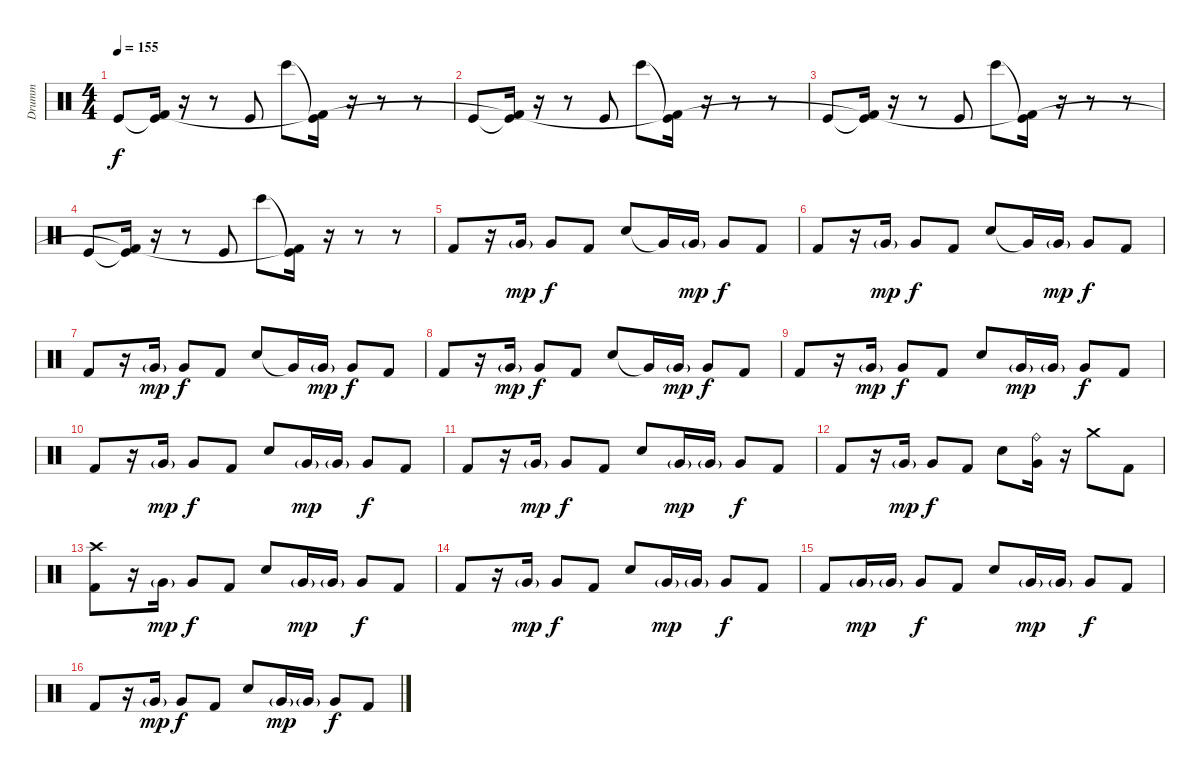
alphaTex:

\track ("Drumm" "Drumm") {instrument percussion}
\staff {score}
\articulation defaults
\ts (4 4)
\tempo 155
\clef neutral
\ks c "Kick (hit)".8{dy f}
("Kick (hit)"{t} "Kick (hit) 2"{t}).16 r.16 r.8 "Kick (hit)".8 "Bongo High (hit)".8 ("Kick (hit)"{t} "Kick (hit) 2"{t}).16 r.16 r.8 r.8 |
"Kick (hit)".8 ("Kick (hit)"{t} "Kick (hit) 2"{t}).16 r.16 r.8 "Kick (hit)".8 "Bongo High (hit)".8 ("Kick (hit)"{t} "Kick (hit) 2"{t}).16 r.16 r.8 r.8 |
"Kick (hit)".8 ("Kick (hit)"{t} "Kick (hit) 2"{t}).16 r.16 r.8 "Kick (hit)".8 "Bongo High (hit)".8 ("Kick (hit)"{t} "Kick (hit) 2"{t}).16 r.16 r.8 r.8 |
"Kick (hit)".8 ("Kick (hit)"{t} "Kick (hit) 2"{t}).16 r.16 r.8 "Kick (hit)".8 "Bongo High (hit)".8 ("Kick (hit)"{t} "Kick (hit) 2"{t}).16 r.16 r.8 r.8 |
"Kick (hit) 2".8 r.16 "Very Low Tom (hit)"{g}.16{dy mp} "Very Low Tom (hit)".8{dy f} "Kick (hit) 2".8 "Snare (hit) 2".8 "Very Low Tom (hit)"{t}.16 "Very Low Tom (hit)"{g}.16{dy mp} "Very Low Tom (hit)".8{dy f} "Kick (hit) 2".8 |
"Kick (hit) 2".8 r.16 "Very Low Tom (hit)"{g}.16{dy mp} "Very Low Tom (hit)".8{dy f} "Kick (hit) 2".8 "Snare (hit) 2".8 "Very Low Tom (hit)"{t}.16 "Very Low Tom (hit)"{g}.16{dy mp} "Very Low Tom (hit)".8{dy f} "Kick (hit) 2".8 |
"Kick (hit) 2".8 r.16 "Very Low Tom (hit)"{g}.16{dy mp} "Very Low Tom (hit)".8{dy f} "Kick (hit) 2".8 "Snare (hit) 2".8 "Very Low Tom (hit)"{t}.16 "Very Low Tom (hit)"{g}.16{dy mp} "Very Low Tom (hit)".8{dy f} "Kick (hit) 2".8 |
"Kick (hit) 2".8 r.16 "Very Low Tom (hit)"{g}.16{dy mp} "Very Low Tom (hit)".8{dy f} "Kick (hit) 2".8 "Snare (hit) 2".8 "Very Low Tom (hit)"{t}.16 "Very Low Tom (hit)"{g}.16{dy mp} "Very Low Tom (hit)".8{dy f} "Kick (hit) 2".8 |
"Kick (hit) 2".8 r.16 "Very Low Tom (hit)"{g}.16{dy mp} "Very Low Tom (hit)".8{dy f} "Kick (hit) 2".8 "Snare (hit) 2".8 "Very Low Tom (hit)"{g}.16{dy mp} "Very Low Tom (hit)"{g}.16 "Very Low Tom (hit)".8{dy f} "Kick (hit) 2".8 |
"Kick (hit) 2".8 r.16 "Very Low Tom (hit)"{g}.16{dy mp} "Very Low Tom (hit)".8{dy f} "Kick (hit) 2".8 "Snare (hit) 2".8 "Very Low Tom (hit)"{g}.16{dy mp} "Very Low Tom (hit)"{g}.16 "Very Low Tom (hit)".8{dy f} "Kick (hit) 2".8 |
"Kick (hit) 2".8 r.16 "Very Low Tom (hit)"{g}.16{dy mp} "Very Low Tom (hit)".8{dy f} "Kick (hit) 2".8 "Snare (hit) 2".8 "Very Low Tom (hit)"{g}.16{dy mp} "Very Low Tom (hit)"{g}.16 "Very Low Tom (hit)".8{dy f} "Kick (hit) 2".8 |
"Kick (hit) 2".8 r.16 "Very Low Tom (hit)"{g}.16{dy mp} "Very Low Tom (hit)".8{dy f} "Kick (hit) 2".8 "Snare (hit) 2".8 ("Ride (bell)" "Very Low Tom (hit)").16 r.16 "Crash medium (hit)".8 "Kick (hit) 2".8 |
("Crash high (hit)" "Kick (hit) 2").8 r.16 "Very Low Tom (hit)"{g}.16{dy mp} "Very Low Tom (hit)".8{dy f} "Kick (hit) 2".8 "Snare (hit) 2".8 "Very Low Tom (hit)"{g}.16{dy mp} "Very Low Tom (hit)"{g}.16 "Very Low Tom (hit)".8{dy f} "Kick (hit) 2".8 |
"Kick (hit) 2".8 r.16 "Very Low Tom (hit)"{g}.16{dy mp} "Very Low Tom (hit)".8{dy f} "Kick (hit) 2".8 "Snare (hit) 2".8 "Very Low Tom (hit)"{g}.16{dy mp} "Very Low Tom (hit)"{g}.16 "Very Low Tom (hit)".8{dy f} "Kick (hit) 2".8 |
"Kick (hit) 2".8 "Very Low Tom (hit)"{g}.16{dy mp} "Very Low Tom (hit)"{g}.16 "Very Low Tom (hit)".8{dy f} "Kick (hit) 2".8 "Snare (hit) 2".8 "Very Low Tom (hit)"{g}.16{dy mp} "Very Low Tom (hit)"{g}.16 "Very Low Tom (hit)".8{dy f} "Kick (hit) 2".8 |
"Kick (hit) 2".8 r.16 "Very Low Tom (hit)"{g}.16{dy mp} "Very Low Tom (hit)".8{dy f} "Kick (hit) 2".8 "Snare (hit) 2".8 "Very Low Tom (hit)"{g}.16{dy mp} "Very Low Tom (hit)"{g}.16 "Very Low Tom (hit)".8{dy f} "Kick (hit) 2".8
